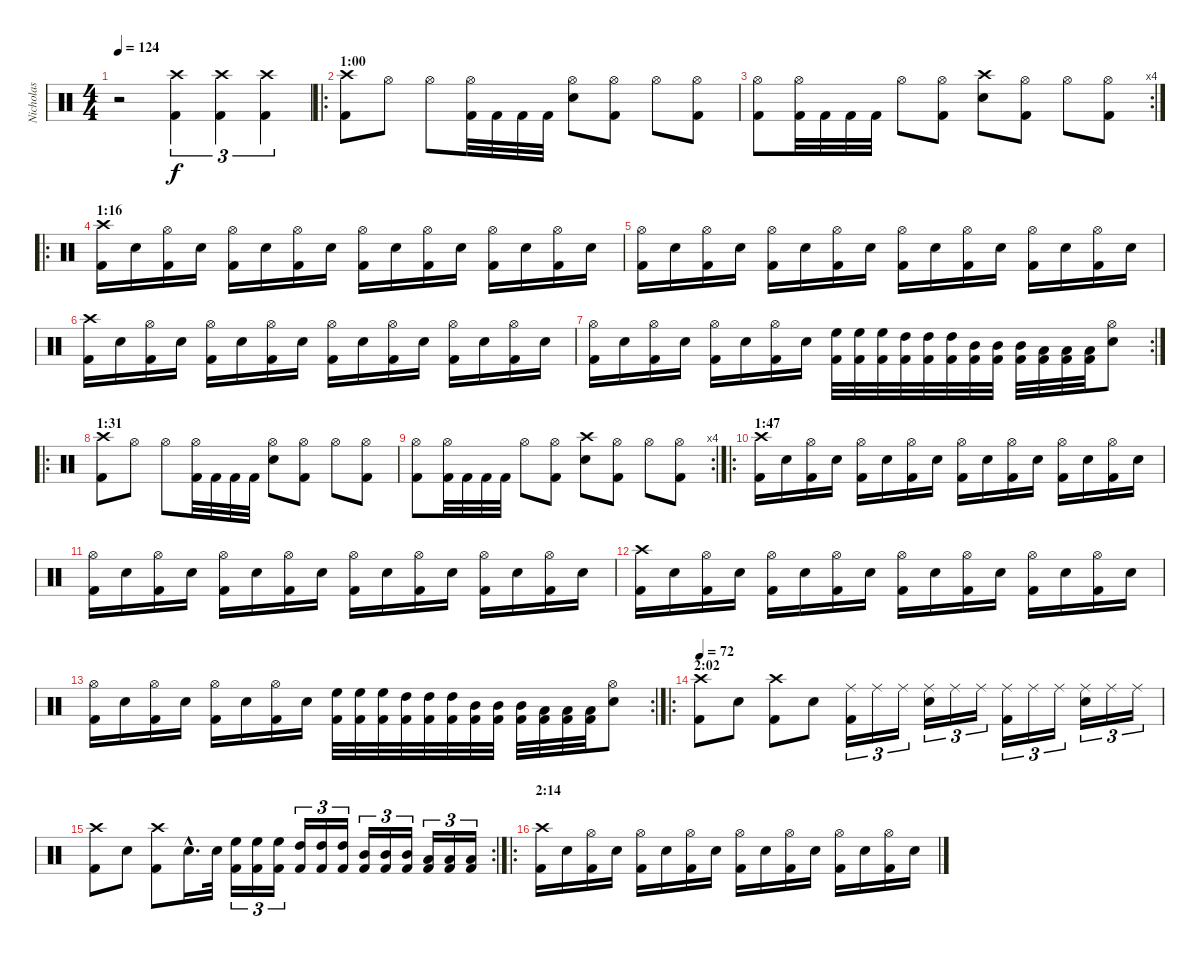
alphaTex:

\track ("Nicholas" "Nicholas") {instrument percussion}
\staff {score}
\articulation defaults
\ts (4 4)
\tempo 124
\clef neutral
\ks c
r.2{dy f} ("Kick (hit) 2" "Crash high (hit)").4{tu (3 2)} ("Kick (hit) 2" "Crash high (hit)").4{tu (3 2)} ("Kick (hit) 2" "Crash high (hit)").4{tu (3 2)} |
\ro
\section ("" "1:00")
("Kick (hit) 2" "Crash high (hit)").8 "Hi-Hat (open)".8 "Hi-Hat (open)".8 ("Kick (hit) 2" "Hi-Hat (open)").32 "Kick (hit) 2".32 "Kick (hit) 2".32 "Kick (hit) 2".32 ("Snare (hit) 2" "Hi-Hat (open)").8 ("Kick (hit) 2" "Hi-Hat (open)").8 "Hi-Hat (open)".8 ("Kick (hit) 2" "Hi-Hat (open)").8 |
\rc 4
("Kick (hit) 2" "Hi-Hat (open)").8 ("Kick (hit) 2" "Hi-Hat (open)").32 "Kick (hit) 2".32 "Kick (hit) 2".32 "Kick (hit) 2".32 "Hi-Hat (open)".8 ("Kick (hit) 2" "Hi-Hat (open)").8 ("Snare (hit) 2" "Crash high (hit)").8 ("Kick (hit) 2" "Hi-Hat (open)").8 "Hi-Hat (open)".8 ("Kick (hit) 2" "Hi-Hat (open)").8 |
\ro
\section ("" "1:16")
("Kick (hit) 2" "Crash high (hit)").16 "Snare (hit) 2".16 ("Kick (hit) 2" "Hi-Hat (open)").16 "Snare (hit) 2".16 ("Kick (hit) 2" "Hi-Hat (open)").16 "Snare (hit) 2".16 ("Kick (hit) 2" "Hi-Hat (open)").16 "Snare (hit) 2".16 ("Kick (hit) 2" "Hi-Hat (open)").16 "Snare (hit) 2".16 ("Kick (hit) 2" "Hi-Hat (open)").16 "Snare (hit) 2".16 ("Kick (hit) 2" "Hi-Hat (open)").16 "Snare (hit) 2".16 ("Kick (hit) 2" "Hi-Hat (open)").16 "Snare (hit) 2".16 |
("Kick (hit) 2" "Hi-Hat (open)").16 "Snare (hit) 2".16 ("Kick (hit) 2" "Hi-Hat (open)").16 "Snare (hit) 2".16 ("Kick (hit) 2" "Hi-Hat (open)").16 "Snare (hit) 2".16 ("Kick (hit) 2" "Hi-Hat (open)").16 "Snare (hit) 2".16 ("Kick (hit) 2" "Hi-Hat (open)").16 "Snare (hit) 2".16 ("Kick (hit) 2" "Hi-Hat (open)").16 "Snare (hit) 2".16 ("Kick (hit) 2" "Hi-Hat (open)").16 "Snare (hit) 2".16 ("Kick (hit) 2" "Hi-Hat (open)").16 "Snare (hit) 2".16 |
("Kick (hit) 2" "Crash high (hit)").16 "Snare (hit) 2".16 ("Kick (hit) 2" "Hi-Hat (open)").16 "Snare (hit) 2".16 ("Kick (hit) 2" "Hi-Hat (open)").16 "Snare (hit) 2".16 ("Kick (hit) 2" "Hi-Hat (open)").16 "Snare (hit) 2".16 ("Kick (hit) 2" "Hi-Hat (open)").16 "Snare (hit) 2".16 ("Kick (hit) 2" "Hi-Hat (open)").16 "Snare (hit) 2".16 ("Kick (hit) 2" "Hi-Hat (open)").16 "Snare (hit) 2".16 ("Kick (hit) 2" "Hi-Hat (open)").16 "Snare (hit) 2".16 |
\rc 2
("Kick (hit) 2" "Hi-Hat (open)").16 "Snare (hit) 2".16 ("Kick (hit) 2" "Hi-Hat (open)").16 "Snare (hit) 2".16 ("Kick (hit) 2" "Hi-Hat (open)").16 "Snare (hit) 2".16 ("Kick (hit) 2" "Hi-Hat (open)").16 "Snare (hit) 2".16 ("Kick (hit) 2" "High Floor Tom (hit)").32 ("Kick (hit) 2" "High Floor Tom (hit)").32 ("Kick (hit) 2" "High Floor Tom (hit)").32 ("Kick (hit) 2" "High Tom (hit)").32 ("Kick (hit) 2" "High Tom (hit)").32 ("Kick (hit) 2" "High Tom (hit)").32 ("Kick (hit) 2" "Mid Tom (hit)").32 ("Kick (hit) 2" "Mid Tom (hit)").32 ("Kick (hit) 2" "Mid Tom (hit)").32 ("Kick (hit) 2" "Low Tom (hit)").32 ("Kick (hit) 2" "Low Tom (hit)").32 ("Kick (hit) 2" "Low Tom (hit)").32 ("Snare (hit) 2" "Hi-Hat (open)").8 |
\ro
\section ("" "1:31")
("Kick (hit) 2" "Crash high (hit)").8 "Hi-Hat (open)".8 "Hi-Hat (open)".8 ("Kick (hit) 2" "Hi-Hat (open)").32 "Kick (hit) 2".32 "Kick (hit) 2".32 "Kick (hit) 2".32 ("Snare (hit) 2" "Hi-Hat (open)").8 ("Kick (hit) 2" "Hi-Hat (open)").8 "Hi-Hat (open)".8 ("Kick (hit) 2" "Hi-Hat (open)").8 |
\rc 4
("Kick (hit) 2" "Hi-Hat (open)").8 ("Kick (hit) 2" "Hi-Hat (open)").32 "Kick (hit) 2".32 "Kick (hit) 2".32 "Kick (hit) 2".32 "Hi-Hat (open)".8 ("Kick (hit) 2" "Hi-Hat (open)").8 ("Snare (hit) 2" "Crash high (hit)").8 ("Kick (hit) 2" "Hi-Hat (open)").8 "Hi-Hat (open)".8 ("Kick (hit) 2" "Hi-Hat (open)").8 |
\ro
\section ("" "1:47")
("Kick (hit) 2" "Crash high (hit)").16 "Snare (hit) 2".16 ("Kick (hit) 2" "Hi-Hat (open)").16 "Snare (hit) 2".16 ("Kick (hit) 2" "Hi-Hat (open)").16 "Snare (hit) 2".16 ("Kick (hit) 2" "Hi-Hat (open)").16 "Snare (hit) 2".16 ("Kick (hit) 2" "Hi-Hat (open)").16 "Snare (hit) 2".16 ("Kick (hit) 2" "Hi-Hat (open)").16 "Snare (hit) 2".16 ("Kick (hit) 2" "Hi-Hat (open)").16 "Snare (hit) 2".16 ("Kick (hit) 2" "Hi-Hat (open)").16 "Snare (hit) 2".16 |
("Kick (hit) 2" "Hi-Hat (open)").16 "Snare (hit) 2".16 ("Kick (hit) 2" "Hi-Hat (open)").16 "Snare (hit) 2".16 ("Kick (hit) 2" "Hi-Hat (open)").16 "Snare (hit) 2".16 ("Kick (hit) 2" "Hi-Hat (open)").16 "Snare (hit) 2".16 ("Kick (hit) 2" "Hi-Hat (open)").16 "Snare (hit) 2".16 ("Kick (hit) 2" "Hi-Hat (open)").16 "Snare (hit) 2".16 ("Kick (hit) 2" "Hi-Hat (open)").16 "Snare (hit) 2".16 ("Kick (hit) 2" "Hi-Hat (open)").16 "Snare (hit) 2".16 |
("Kick (hit) 2" "Crash high (hit)").16 "Snare (hit) 2".16 ("Kick (hit) 2" "Hi-Hat (open)").16 "Snare (hit) 2".16 ("Kick (hit) 2" "Hi-Hat (open)").16 "Snare (hit) 2".16 ("Kick (hit) 2" "Hi-Hat (open)").16 "Snare (hit) 2".16 ("Kick (hit) 2" "Hi-Hat (open)").16 "Snare (hit) 2".16 ("Kick (hit) 2" "Hi-Hat (open)").16 "Snare (hit) 2".16 ("Kick (hit) 2" "Hi-Hat (open)").16 "Snare (hit) 2".16 ("Kick (hit) 2" "Hi-Hat (open)").16 "Snare (hit) 2".16 |
\rc 2
("Kick (hit) 2" "Hi-Hat (open)").16 "Snare (hit) 2".16 ("Kick (hit) 2" "Hi-Hat (open)").16 "Snare (hit) 2".16 ("Kick (hit) 2" "Hi-Hat (open)").16 "Snare (hit) 2".16 ("Kick (hit) 2" "Hi-Hat (open)").16 "Snare (hit) 2".16 ("Kick (hit) 2" "High Floor Tom (hit)").32 ("Kick (hit) 2" "High Floor Tom (hit)").32 ("Kick (hit) 2" "High Floor Tom (hit)").32 ("Kick (hit) 2" "High Tom (hit)").32 ("Kick (hit) 2" "High Tom (hit)").32 ("Kick (hit) 2" "High Tom (hit)").32 ("Kick (hit) 2" "Mid Tom (hit)").32 ("Kick (hit) 2" "Mid Tom (hit)").32 ("Kick (hit) 2" "Mid Tom (hit)").32 ("Kick (hit) 2" "Low Tom (hit)").32 ("Kick (hit) 2" "Low Tom (hit)").32 ("Kick (hit) 2" "Low Tom (hit)").32 ("Snare (hit) 2" "Hi-Hat (open)").8 |
\ro
\section ("" "2:02")
\tempo 72
("Kick (hit) 2" "Crash high (hit)").8 "Snare (hit) 2".8 ("Kick (hit) 2" "Crash high (hit)").8 "Snare (hit) 2".8 ("Kick (hit) 2" "Ride (middle)").16{tu (3 2)} "Ride (middle)".16{tu (3 2)} "Ride (middle)".16{tu (3 2)} ("Snare (hit) 2" "Ride (middle)").16{tu (3 2)} "Ride (middle)".16{tu (3 2)} "Ride (middle)".16{tu (3 2)} ("Kick (hit) 2" "Ride (middle)").16{tu (3 2)} "Ride (middle)".16{tu (3 2)} "Ride (middle)".16{tu (3 2)} ("Snare (hit) 2" "Ride (middle)").16{tu (3 2)} "Ride (middle)".16{tu (3 2)} "Ride (middle)".16{tu (3 2)} |
\rc 2
("Kick (hit) 2" "Crash high (hit)").8 "Snare (hit) 2".8 ("Kick (hit) 2" "Crash high (hit)").8 "Snare (hit) 2"{hac}.16{d} "Snare (hit) 2".32 ("Kick (hit) 2" "High Floor Tom (hit)").16{tu (3 2)} ("Kick (hit) 2" "High Floor Tom (hit)").16{tu (3 2)} ("Kick (hit) 2" "High Floor Tom (hit)").16{tu (3 2)} ("Kick (hit) 2" "High Tom (hit)").16{tu (3 2)} ("Kick (hit) 2" "High Tom (hit)").16{tu (3 2)} ("Kick (hit) 2" "High Tom (hit)").16{tu (3 2)} ("Kick (hit) 2" "Mid Tom (hit)").16{tu (3 2)} ("Kick (hit) 2" "Mid Tom (hit)").16{tu (3 2)} ("Kick (hit) 2" "Mid Tom (hit)").16{tu (3 2)} ("Kick (hit) 2" "Low Tom (hit)").16{tu (3 2)} ("Kick (hit) 2" "Low Tom (hit)").16{tu (3 2)} ("Kick (hit) 2" "Low Tom (hit)").16{tu (3 2)} |
\ro
\section ("" "2:14")
("Kick (hit) 2" "Crash high (hit)").16 "Snare (hit) 2".16 ("Kick (hit) 2" "Hi-Hat (open)").16 "Snare (hit) 2".16 ("Kick (hit) 2" "Hi-Hat (open)").16 "Snare (hit) 2".16 ("Kick (hit) 2" "Hi-Hat (open)").16 "Snare (hit) 2".16 ("Kick (hit) 2" "Hi-Hat (open)").16 "Snare (hit) 2".16 ("Kick (hit) 2" "Hi-Hat (open)").16 "Snare (hit) 2".16 ("Kick (hit) 2" "Hi-Hat (open)").16 "Snare (hit) 2".16 ("Kick (hit) 2" "Hi-Hat (open)").16 "Snare (hit) 2".16
